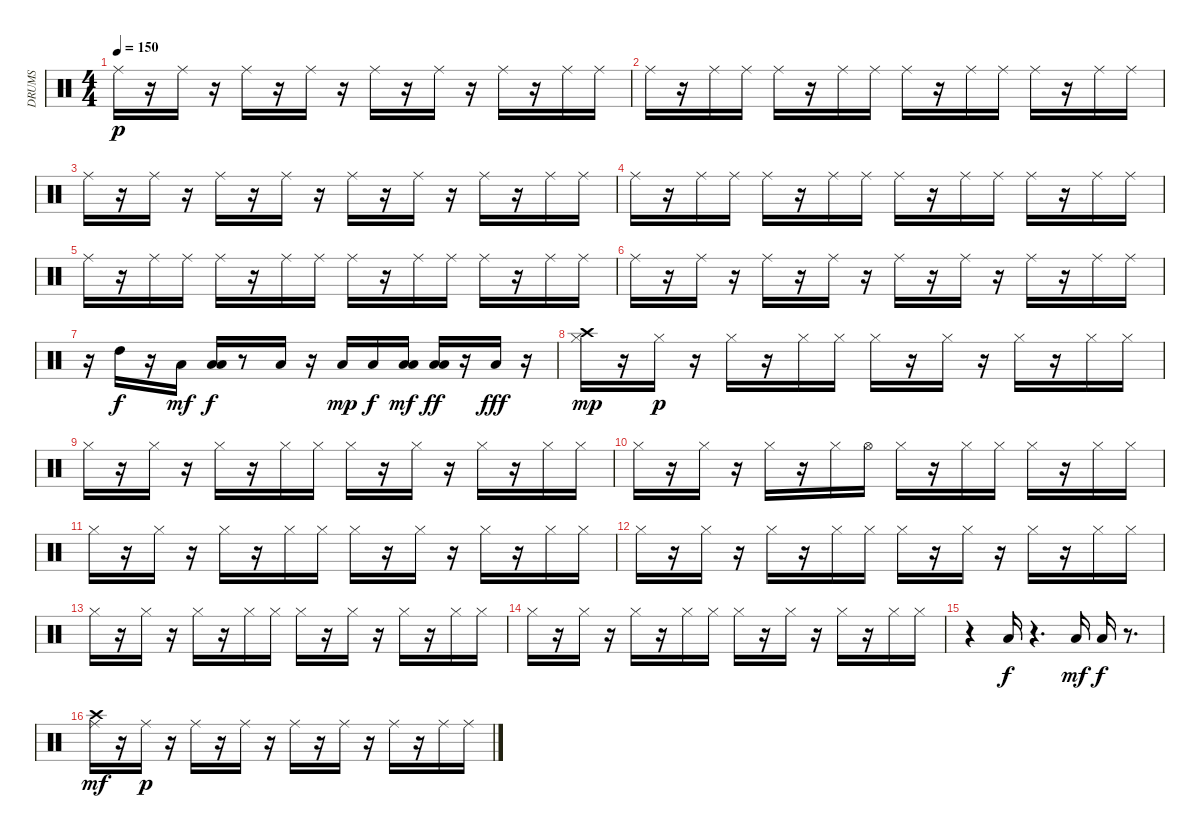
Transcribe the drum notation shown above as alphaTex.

\track ("DRUMS" "DRUMS") {instrument percussion}
\staff {score}
\articulation defaults
\ts (4 4)
\tempo 150
\clef neutral
\ks c "Ride (middle)".16{dy p}
r.16 "Ride (middle)".16 r.16 "Ride (middle)".16 r.16 "Ride (middle)".16 r.16 "Ride (middle)".16 r.16 "Ride (middle)".16 r.16 "Ride (middle)".16 r.16 "Ride (middle)".16 "Ride (middle)".16 |
"Ride (middle)".16 r.16 "Ride (middle)".16 "Ride (middle)".16 "Ride (middle)".16 r.16 "Ride (middle)".16 "Ride (middle)".16 "Ride (middle)".16 r.16 "Ride (middle)".16 "Ride (middle)".16 "Ride (middle)".16 r.16 "Ride (middle)".16 "Ride (middle)".16 |
"Ride (middle)".16 r.16 "Ride (middle)".16 r.16 "Ride (middle)".16 r.16 "Ride (middle)".16 r.16 "Ride (middle)".16 r.16 "Ride (middle)".16 r.16 "Ride (middle)".16 r.16 "Ride (middle)".16 "Ride (middle)".16 |
"Ride (middle)".16 r.16 "Ride (middle)".16 "Ride (middle)".16 "Ride (middle)".16 r.16 "Ride (middle)".16 "Ride (middle)".16 "Ride (middle)".16 r.16 "Ride (middle)".16 "Ride (middle)".16 "Ride (middle)".16 r.16 "Ride (middle)".16 "Ride (middle)".16 |
"Ride (middle)".16 r.16 "Ride (middle)".16 "Ride (middle)".16 "Ride (middle)".16 r.16 "Ride (middle)".16 "Ride (middle)".16 "Ride (middle)".16 r.16 "Ride (middle)".16 "Ride (middle)".16 "Ride (middle)".16 r.16 "Ride (middle)".16 "Ride (middle)".16 |
"Ride (middle)".16 r.16 "Ride (middle)".16 r.16 "Ride (middle)".16 r.16 "Ride (middle)".16 r.16 "Ride (middle)".16 r.16 "Ride (middle)".16 r.16 "Ride (middle)".16 r.16 "Ride (middle)".16 "Ride (middle)".16 |
r.16 "High Tom (hit)".16{dy f} r.16 "Low Tom (hit)".16{dy mf} ("Low Tom (hit)" "Low Floor Tom (hit)").16{dy f} r.8 "Low Tom (hit)".16 r.16 "Low Floor Tom (hit)".16{dy mp} "Low Floor Tom (hit)".16{dy f} ("Low Floor Tom (hit)" "Low Floor Tom (hit)").16{dy mf} ("Low Floor Tom (hit)" "Low Floor Tom (hit)").16{dy ff} r.16 "Low Floor Tom (hit)".16{dy fff} r.16 |
("Hi-Hat (closed)" "Crash high (hit)").16{dy mp} r.16 "Hi-Hat (closed)".16{dy p} r.16 "Hi-Hat (closed)".16 r.16 "Hi-Hat (closed)".16 "Hi-Hat (closed)".16 "Hi-Hat (closed)".16 r.16 "Hi-Hat (closed)".16 r.16 "Hi-Hat (closed)".16 r.16 "Hi-Hat (closed)".16 "Hi-Hat (closed)".16 |
"Hi-Hat (closed)".16 r.16 "Hi-Hat (closed)".16 r.16 "Hi-Hat (closed)".16 r.16 "Hi-Hat (closed)".16 "Hi-Hat (closed)".16 "Hi-Hat (closed)".16 r.16 "Hi-Hat (closed)".16 r.16 "Hi-Hat (closed)".16 r.16 "Hi-Hat (closed)".16 "Hi-Hat (closed)".16 |
"Hi-Hat (closed)".16 r.16 "Hi-Hat (closed)".16 r.16 "Hi-Hat (closed)".16 r.16 "Hi-Hat (closed)".16 "Hi-Hat (open)".16 "Hi-Hat (closed)".16 r.16 "Hi-Hat (closed)".16 "Hi-Hat (closed)".16 "Hi-Hat (closed)".16 r.16 "Hi-Hat (closed)".16 "Hi-Hat (closed)".16 |
"Hi-Hat (closed)".16 r.16 "Hi-Hat (closed)".16 r.16 "Hi-Hat (closed)".16 r.16 "Hi-Hat (closed)".16 "Hi-Hat (closed)".16 "Hi-Hat (closed)".16 r.16 "Hi-Hat (closed)".16 r.16 "Hi-Hat (closed)".16 r.16 "Hi-Hat (closed)".16 "Hi-Hat (closed)".16 |
"Hi-Hat (closed)".16 r.16 "Hi-Hat (closed)".16 r.16 "Hi-Hat (closed)".16 r.16 "Hi-Hat (closed)".16 "Hi-Hat (closed)".16 "Hi-Hat (closed)".16 r.16 "Hi-Hat (closed)".16 r.16 "Hi-Hat (closed)".16 r.16 "Hi-Hat (closed)".16 "Hi-Hat (closed)".16 |
"Hi-Hat (closed)".16 r.16 "Hi-Hat (closed)".16 r.16 "Hi-Hat (closed)".16 r.16 "Hi-Hat (closed)".16 "Hi-Hat (closed)".16 "Hi-Hat (closed)".16 r.16 "Hi-Hat (closed)".16 r.16 "Hi-Hat (closed)".16 r.16 "Hi-Hat (closed)".16 "Hi-Hat (closed)".16 |
"Hi-Hat (closed)".16 r.16 "Hi-Hat (closed)".16 r.16 "Hi-Hat (closed)".16 r.16 "Hi-Hat (closed)".16 "Hi-Hat (closed)".16 "Hi-Hat (closed)".16 r.16 "Hi-Hat (closed)".16 r.16 "Hi-Hat (closed)".16 r.16 "Hi-Hat (closed)".16 "Hi-Hat (closed)".16 |
r.4 "Low Floor Tom (hit)".16{dy f} r.4{d} "Low Floor Tom (hit)".16{dy mf} "Low Floor Tom (hit)".16{dy f} r.8{d} |
("Ride (middle)" "Crash high (hit)").16{dy mf} r.16 "Ride (middle)".16{dy p} r.16 "Ride (middle)".16 r.16 "Ride (middle)".16 r.16 "Ride (middle)".16 r.16 "Ride (middle)".16 r.16 "Ride (middle)".16 r.16 "Ride (middle)".16 "Ride (middle)".16
